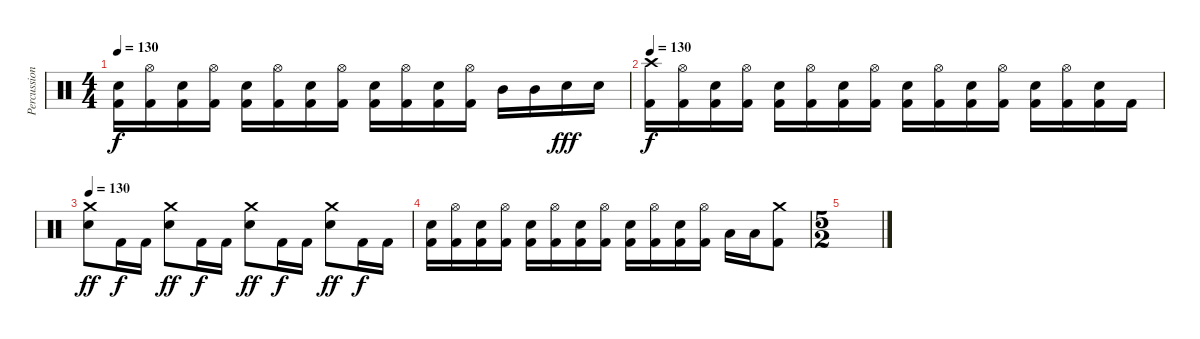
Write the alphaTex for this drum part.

\track ("Percussion" "Percussion") {instrument percussion}
\staff {score}
\articulation defaults
\ts (4 4)
\tempo 130
\clef neutral
\ks c
("Electric Snare (hit)" "Kick (hit) 2").16{dy f} ("Hi-Hat (open)" "Kick (hit) 2").16 ("Electric Snare (hit)" "Kick (hit) 2").16 ("Hi-Hat (open)" "Kick (hit) 2").16 ("Electric Snare (hit)" "Kick (hit) 2").16 ("Hi-Hat (open)" "Kick (hit) 2").16 ("Electric Snare (hit)" "Kick (hit) 2").16 ("Hi-Hat (open)" "Kick (hit) 2").16 ("Electric Snare (hit)" "Kick (hit) 2").16 ("Hi-Hat (open)" "Kick (hit) 2").16 ("Electric Snare (hit)" "Kick (hit) 2").16 ("Hi-Hat (open)" "Kick (hit) 2").16 "Mid Tom (hit)".16 "Mid Tom (hit)".16 "Electric Snare (hit)".16{dy fff} "Electric Snare (hit)".16 |
\tempo 130
("Crash high (hit)" "Kick (hit) 2").16{dy f} ("Hi-Hat (open)" "Kick (hit) 2").16 ("Electric Snare (hit)" "Kick (hit) 2").16 ("Hi-Hat (open)" "Kick (hit) 2").16 ("Electric Snare (hit)" "Kick (hit) 2").16 ("Hi-Hat (open)" "Kick (hit) 2").16 ("Electric Snare (hit)" "Kick (hit) 2").16 ("Hi-Hat (open)" "Kick (hit) 2").16 ("Electric Snare (hit)" "Kick (hit) 2").16 ("Hi-Hat (open)" "Kick (hit) 2").16 ("Electric Snare (hit)" "Kick (hit) 2").16 ("Hi-Hat (open)" "Kick (hit) 2").16 ("Electric Snare (hit)" "Kick (hit) 2").16 ("Hi-Hat (open)" "Kick (hit) 2").16 ("Electric Snare (hit)" "Kick (hit) 2").16 "Kick (hit) 2".16 |
\tempo 130
("Crash medium (hit)" "Electric Snare (hit)").8{dy ff} "Kick (hit) 2".16{dy f} "Kick (hit) 2".16 ("Crash medium (hit)" "Electric Snare (hit)").8{dy ff} "Kick (hit) 2".16{dy f} "Kick (hit) 2".16 ("Crash medium (hit)" "Electric Snare (hit)").8{dy ff} "Kick (hit) 2".16{dy f} "Kick (hit) 2".16 ("Crash medium (hit)" "Electric Snare (hit)").8{dy ff} "Kick (hit) 2".16{dy f} "Kick (hit) 2".16 |
("Electric Snare (hit)" "Kick (hit) 2").16 ("Hi-Hat (open)" "Kick (hit) 2").16 ("Electric Snare (hit)" "Kick (hit) 2").16 ("Hi-Hat (open)" "Kick (hit) 2").16 ("Electric Snare (hit)" "Kick (hit) 2").16 ("Hi-Hat (open)" "Kick (hit) 2").16 ("Electric Snare (hit)" "Kick (hit) 2").16 ("Hi-Hat (open)" "Kick (hit) 2").16 ("Electric Snare (hit)" "Kick (hit) 2").16 ("Hi-Hat (open)" "Kick (hit) 2").16 ("Electric Snare (hit)" "Kick (hit) 2").16 ("Hi-Hat (open)" "Kick (hit) 2").16 "Low Tom (hit)".16 "Low Tom (hit)".16 ("Crash medium (hit)" "Kick (hit) 2").8 |
\ts (5 2)
